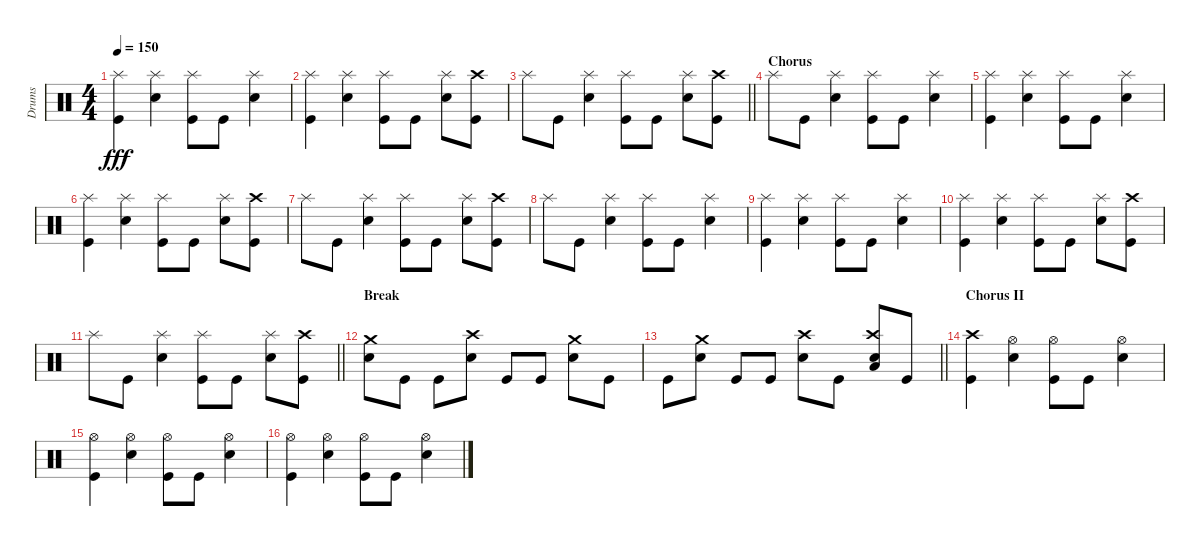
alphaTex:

\track ("Drums" "Drums") {instrument percussion}
\staff {score}
\articulation defaults
\ts (4 4)
\tempo 150
\clef neutral
\ks c
("Splash (hit)" "Kick (hit)").4{dy fff} ("Splash (hit)" "Snare (hit) 2").4 ("Splash (hit)" "Kick (hit)").8 "Kick (hit)".8 ("Splash (hit)" "Snare (hit) 2").4 |
("Splash (hit)" "Kick (hit)").4 ("Splash (hit)" "Snare (hit) 2").4 ("Splash (hit)" "Kick (hit)").8 "Kick (hit)".8 ("Splash (hit)" "Snare (hit) 2").8 ("Crash high (hit)" "Kick (hit)").8 |
\barLineRight lightlight "Splash (hit)".8 "Kick (hit)".8
("Splash (hit)" "Snare (hit) 2").4 ("Splash (hit)" "Kick (hit)").8 "Kick (hit)".8 ("Splash (hit)" "Snare (hit) 2").8 ("Crash high (hit)" "Kick (hit)").8 |
\section ("" "Chorus")
"Splash (hit)".8 "Kick (hit)".8 ("Splash (hit)" "Snare (hit) 2").4 ("Splash (hit)" "Kick (hit)").8 "Kick (hit)".8 ("Splash (hit)" "Snare (hit) 2").4 |
("Splash (hit)" "Kick (hit)").4 ("Splash (hit)" "Snare (hit) 2").4 ("Splash (hit)" "Kick (hit)").8 "Kick (hit)".8 ("Splash (hit)" "Snare (hit) 2").4 |
("Splash (hit)" "Kick (hit)").4 ("Splash (hit)" "Snare (hit) 2").4 ("Splash (hit)" "Kick (hit)").8 "Kick (hit)".8 ("Splash (hit)" "Snare (hit) 2").8 ("Crash high (hit)" "Kick (hit)").8 |
"Splash (hit)".8 "Kick (hit)".8 ("Splash (hit)" "Snare (hit) 2").4 ("Splash (hit)" "Kick (hit)").8 "Kick (hit)".8 ("Splash (hit)" "Snare (hit) 2").8 ("Crash high (hit)" "Kick (hit)").8 |
"Splash (hit)".8 "Kick (hit)".8 ("Splash (hit)" "Snare (hit) 2").4 ("Splash (hit)" "Kick (hit)").8 "Kick (hit)".8 ("Splash (hit)" "Snare (hit) 2").4 |
("Splash (hit)" "Kick (hit)").4 ("Splash (hit)" "Snare (hit) 2").4 ("Splash (hit)" "Kick (hit)").8 "Kick (hit)".8 ("Splash (hit)" "Snare (hit) 2").4 |
("Splash (hit)" "Kick (hit)").4 ("Splash (hit)" "Snare (hit) 2").4 ("Splash (hit)" "Kick (hit)").8 "Kick (hit)".8 ("Splash (hit)" "Snare (hit) 2").8 ("Crash high (hit)" "Kick (hit)").8 |
\barLineRight lightlight "Splash (hit)".8 "Kick (hit)".8
("Splash (hit)" "Snare (hit) 2").4 ("Splash (hit)" "Kick (hit)").8 "Kick (hit)".8 ("Splash (hit)" "Snare (hit) 2").8 ("Crash high (hit)" "Kick (hit)").8 |
\section ("" "Break")
("Crash medium (hit)" "Snare (hit) 2").8 "Kick (hit)".8 "Kick (hit)".8 ("Crash high (hit)" "Snare (hit) 2").8 "Kick (hit)".8 "Kick (hit)".8 ("Crash medium (hit)" "Snare (hit) 2").8 "Kick (hit)".8 |
\barLineRight lightlight "Kick (hit)".8
("Crash medium (hit)" "Snare (hit) 2").8 "Kick (hit)".8 "Kick (hit)".8 ("Crash high (hit)" "Snare (hit) 2").8 "Kick (hit)".8 ("Crash high (hit)" "Snare (hit) 2" "Low Tom (hit)").8 "Kick (hit)".8 |
\section ("" "Chorus II")
("Crash high (hit)" "Kick (hit)").4 ("Hi-Hat (open)" "Snare (hit) 2").4 ("Hi-Hat (open)" "Kick (hit)").8 "Kick (hit)".8 ("Hi-Hat (open)" "Snare (hit) 2").4 |
("Hi-Hat (open)" "Kick (hit)").4 ("Hi-Hat (open)" "Snare (hit) 2").4 ("Hi-Hat (open)" "Kick (hit)").8 "Kick (hit)".8 ("Hi-Hat (open)" "Snare (hit) 2").4 |
("Hi-Hat (open)" "Kick (hit)").4 ("Hi-Hat (open)" "Snare (hit) 2").4 ("Hi-Hat (open)" "Kick (hit)").8 "Kick (hit)".8 ("Hi-Hat (open)" "Snare (hit) 2").4
